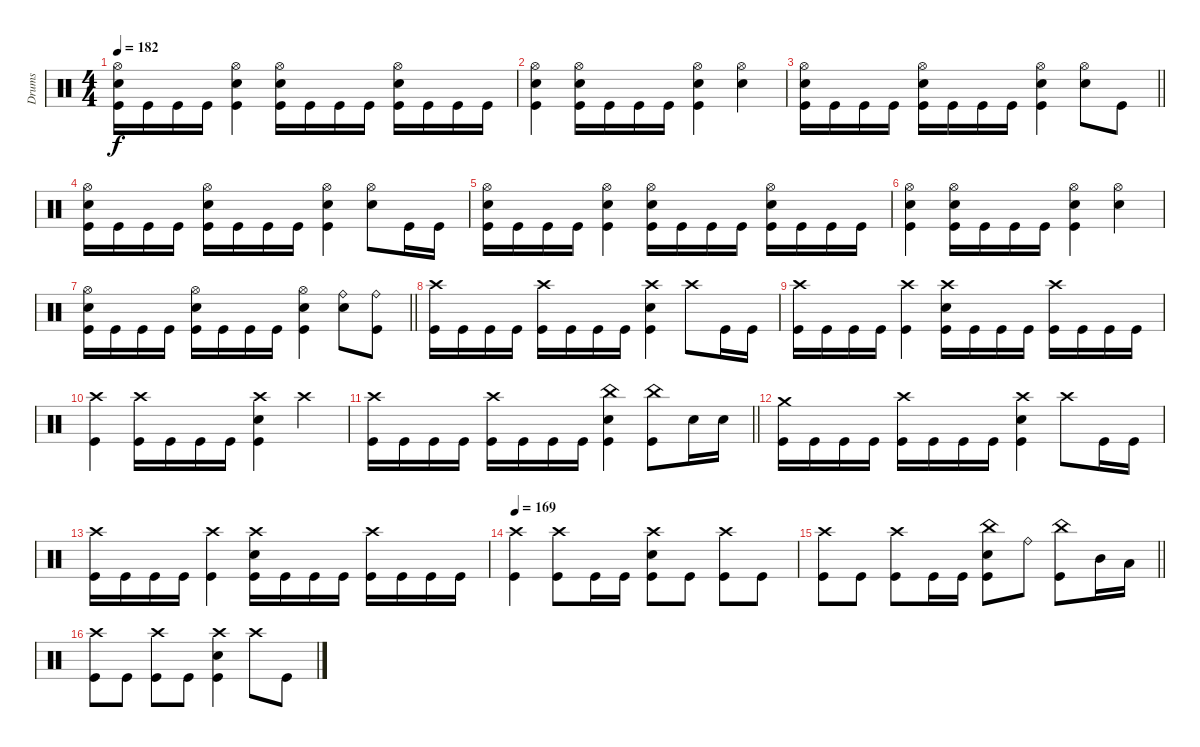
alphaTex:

\track ("Drums" "Drums") {instrument percussion}
\staff
\articulation defaults
\ts (4 4)
\tempo 182
\clef neutral
\ks c
("Hi-Hat (open)" "Electric Snare (hit)" "Kick (hit)").16{dy f} "Kick (hit)".16 "Kick (hit)".16 "Kick (hit)".16 ("Hi-Hat (open)" "Electric Snare (hit)" "Kick (hit)").4 ("Hi-Hat (open)" "Electric Snare (hit)" "Kick (hit)").16 "Kick (hit)".16 "Kick (hit)".16 "Kick (hit)".16 ("Hi-Hat (open)" "Electric Snare (hit)" "Kick (hit)").16 "Kick (hit)".16 "Kick (hit)".16 "Kick (hit)".16 |
("Hi-Hat (open)" "Electric Snare (hit)" "Kick (hit)").4 ("Hi-Hat (open)" "Electric Snare (hit)" "Kick (hit)").16 "Kick (hit)".16 "Kick (hit)".16 "Kick (hit)".16 ("Hi-Hat (open)" "Electric Snare (hit)" "Kick (hit)").4 ("Hi-Hat (open)" "Electric Snare (hit)").4 |
\barLineRight lightlight
("Hi-Hat (open)" "Electric Snare (hit)" "Kick (hit)").16 "Kick (hit)".16 "Kick (hit)".16 "Kick (hit)".16 ("Hi-Hat (open)" "Electric Snare (hit)" "Kick (hit)").16 "Kick (hit)".16 "Kick (hit)".16 "Kick (hit)".16 ("Hi-Hat (open)" "Electric Snare (hit)" "Kick (hit)").4 ("Hi-Hat (open)" "Electric Snare (hit)").8 "Kick (hit)".8 |
("Hi-Hat (open)" "Electric Snare (hit)" "Kick (hit)").16 "Kick (hit)".16 "Kick (hit)".16 "Kick (hit)".16 ("Hi-Hat (open)" "Electric Snare (hit)" "Kick (hit)").16 "Kick (hit)".16 "Kick (hit)".16 "Kick (hit)".16 ("Hi-Hat (open)" "Electric Snare (hit)" "Kick (hit)").4 ("Hi-Hat (open)" "Electric Snare (hit)").8 "Kick (hit)".16 "Kick (hit)".16 |
("Hi-Hat (open)" "Electric Snare (hit)" "Kick (hit)").16 "Kick (hit)".16 "Kick (hit)".16 "Kick (hit)".16 ("Hi-Hat (open)" "Electric Snare (hit)" "Kick (hit)").4 ("Hi-Hat (open)" "Electric Snare (hit)" "Kick (hit)").16 "Kick (hit)".16 "Kick (hit)".16 "Kick (hit)".16 ("Hi-Hat (open)" "Electric Snare (hit)" "Kick (hit)").16 "Kick (hit)".16 "Kick (hit)".16 "Kick (hit)".16 |
("Hi-Hat (open)" "Electric Snare (hit)" "Kick (hit)").4 ("Hi-Hat (open)" "Electric Snare (hit)" "Kick (hit)").16 "Kick (hit)".16 "Kick (hit)".16 "Kick (hit)".16 ("Hi-Hat (open)" "Electric Snare (hit)" "Kick (hit)").4 ("Hi-Hat (open)" "Electric Snare (hit)").4 |
\barLineRight lightlight
("Hi-Hat (open)" "Electric Snare (hit)" "Kick (hit)").16 "Kick (hit)".16 "Kick (hit)".16 "Kick (hit)".16 ("Hi-Hat (open)" "Electric Snare (hit)" "Kick (hit)").16 "Kick (hit)".16 "Kick (hit)".16 "Kick (hit)".16 ("Hi-Hat (open)" "Electric Snare (hit)" "Kick (hit)").4 ("Ride (bell)" "Electric Snare (hit)").8 ("Ride (bell)" "Kick (hit)").8 |
("Crash high (hit)" "Kick (hit)").16 "Kick (hit)".16 "Kick (hit)".16 "Kick (hit)".16 ("Crash high (hit)" "Kick (hit)").16 "Kick (hit)".16 "Kick (hit)".16 "Kick (hit)".16 ("Crash high (hit)" "Electric Snare (hit)" "Kick (hit)").4 "Crash high (hit)".8 "Kick (hit)".16 "Kick (hit)".16 |
("Crash high (hit)" "Kick (hit)").16 "Kick (hit)".16 "Kick (hit)".16 "Kick (hit)".16 ("Crash high (hit)" "Kick (hit)").4 ("Crash high (hit)" "Electric Snare (hit)" "Kick (hit)").16 "Kick (hit)".16 "Kick (hit)".16 "Kick (hit)".16 ("Crash high (hit)" "Kick (hit)").16 "Kick (hit)".16 "Kick (hit)".16 "Kick (hit)".16 |
("Crash high (hit)" "Kick (hit)").4 ("Crash high (hit)" "Kick (hit)").16 "Kick (hit)".16 "Kick (hit)".16 "Kick (hit)".16 ("Crash high (hit)" "Electric Snare (hit)" "Kick (hit)").4 "Crash high (hit)".4 |
\barLineRight lightlight
("Crash high (hit)" "Kick (hit)").16 "Kick (hit)".16 "Kick (hit)".16 "Kick (hit)".16 ("Crash high (hit)" "Kick (hit)").16 "Kick (hit)".16 "Kick (hit)".16 "Kick (hit)".16 ("China (hit)" "Electric Snare (hit)" "Kick (hit)").4 ("China (hit)" "Kick (hit)").8 "Electric Snare (hit)".16 "Electric Snare (hit)".16 |
("Crash medium (hit)" "Kick (hit)").16 "Kick (hit)".16 "Kick (hit)".16 "Kick (hit)".16 ("Crash high (hit)" "Kick (hit)").16 "Kick (hit)".16 "Kick (hit)".16 "Kick (hit)".16 ("Crash high (hit)" "Electric Snare (hit)" "Kick (hit)").4 "Crash high (hit)".8 "Kick (hit)".16 "Kick (hit)".16 |
("Crash high (hit)" "Kick (hit)").16 "Kick (hit)".16 "Kick (hit)".16 "Kick (hit)".16 ("Crash high (hit)" "Kick (hit)").4 ("Crash high (hit)" "Electric Snare (hit)" "Kick (hit)").16 "Kick (hit)".16 "Kick (hit)".16 "Kick (hit)".16 ("Crash high (hit)" "Kick (hit)").16 "Kick (hit)".16 "Kick (hit)".16 "Kick (hit)".16 |
\tempo 169
("Crash high (hit)" "Kick (hit)").4 ("Crash high (hit)" "Kick (hit)").8 "Kick (hit)".16 "Kick (hit)".16 ("Crash high (hit)" "Electric Snare (hit)" "Kick (hit)").8 "Kick (hit)".8 ("Crash high (hit)" "Kick (hit)").8 "Kick (hit)".8 |
\barLineRight lightlight
("Crash high (hit)" "Kick (hit)").8 "Kick (hit)".8 ("Crash high (hit)" "Kick (hit)").8 "Kick (hit)".16 "Kick (hit)".16 ("China (hit)" "Electric Snare (hit)" "Kick (hit)").8 "Ride (bell)".8 ("China (hit)" "Kick (hit)").8 "Mid Tom (hit)".16 "Low Tom (hit)".16 |
\section ("" "")
("Crash high (hit)" "Kick (hit)").8 "Kick (hit)".8 ("Crash high (hit)" "Kick (hit)").8 "Kick (hit)".8 ("Crash high (hit)" "Electric Snare (hit)" "Kick (hit)").4 "Crash high (hit)".8 "Kick (hit)".8
